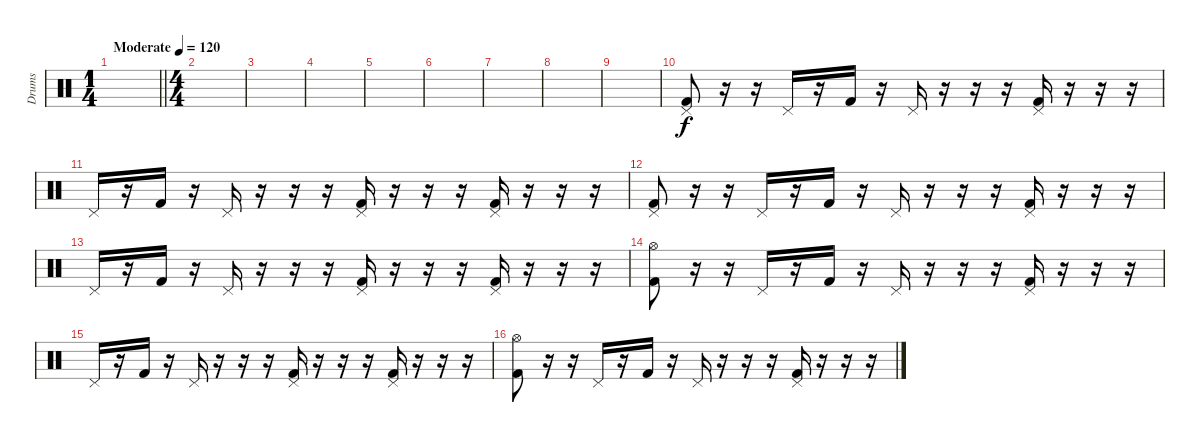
\track ("Drums" "Drums") {instrument percussion}
\staff
\articulation defaults
\ts (1 4)
\tempo (120 "Moderate")
\clef neutral
\barLineRight lightlight
\ks c
|
\ts (4 4)
|
|
|
|
|
|
|
|
("Pedal Hi-Hat (hit)" "Kick (hit) 2").8 r.16 r.16 "Pedal Hi-Hat (hit)".16 r.16 "Kick (hit) 2".16 r.16 "Pedal Hi-Hat (hit)".16 r.16 r.16 r.16 ("Pedal Hi-Hat (hit)" "Kick (hit) 2").16 r.16 r.16 r.16 |
"Pedal Hi-Hat (hit)".16 r.16 "Kick (hit) 2".16 r.16 "Pedal Hi-Hat (hit)".16 r.16 r.16 r.16 ("Pedal Hi-Hat (hit)" "Kick (hit) 2").16 r.16 r.16 r.16 ("Pedal Hi-Hat (hit)" "Kick (hit) 2").16 r.16 r.16 r.16 |
("Pedal Hi-Hat (hit)" "Kick (hit) 2").8 r.16 r.16 "Pedal Hi-Hat (hit)".16 r.16 "Kick (hit) 2".16 r.16 "Pedal Hi-Hat (hit)".16 r.16 r.16 r.16 ("Pedal Hi-Hat (hit)" "Kick (hit) 2").16 r.16 r.16 r.16 |
"Pedal Hi-Hat (hit)".16 r.16 "Kick (hit) 2".16 r.16 "Pedal Hi-Hat (hit)".16 r.16 r.16 r.16 ("Pedal Hi-Hat (hit)" "Kick (hit) 2").16 r.16 r.16 r.16 ("Pedal Hi-Hat (hit)" "Kick (hit) 2").16 r.16 r.16 r.16 |
("Hi-Hat (open)" "Kick (hit) 2").8 r.16 r.16 "Pedal Hi-Hat (hit)".16 r.16 "Kick (hit) 2".16 r.16 "Pedal Hi-Hat (hit)".16 r.16 r.16 r.16 ("Pedal Hi-Hat (hit)" "Kick (hit) 2").16 r.16 r.16 r.16 |
"Pedal Hi-Hat (hit)".16 r.16 "Kick (hit) 2".16 r.16 "Pedal Hi-Hat (hit)".16 r.16 r.16 r.16 ("Pedal Hi-Hat (hit)" "Kick (hit) 2").16 r.16 r.16 r.16 ("Pedal Hi-Hat (hit)" "Kick (hit) 2").16 r.16 r.16 r.16 |
("Hi-Hat (open)" "Kick (hit) 2").8 r.16 r.16 "Pedal Hi-Hat (hit)".16 r.16 "Kick (hit) 2".16 r.16 "Pedal Hi-Hat (hit)".16 r.16 r.16 r.16 ("Pedal Hi-Hat (hit)" "Kick (hit) 2").16 r.16 r.16 r.16
